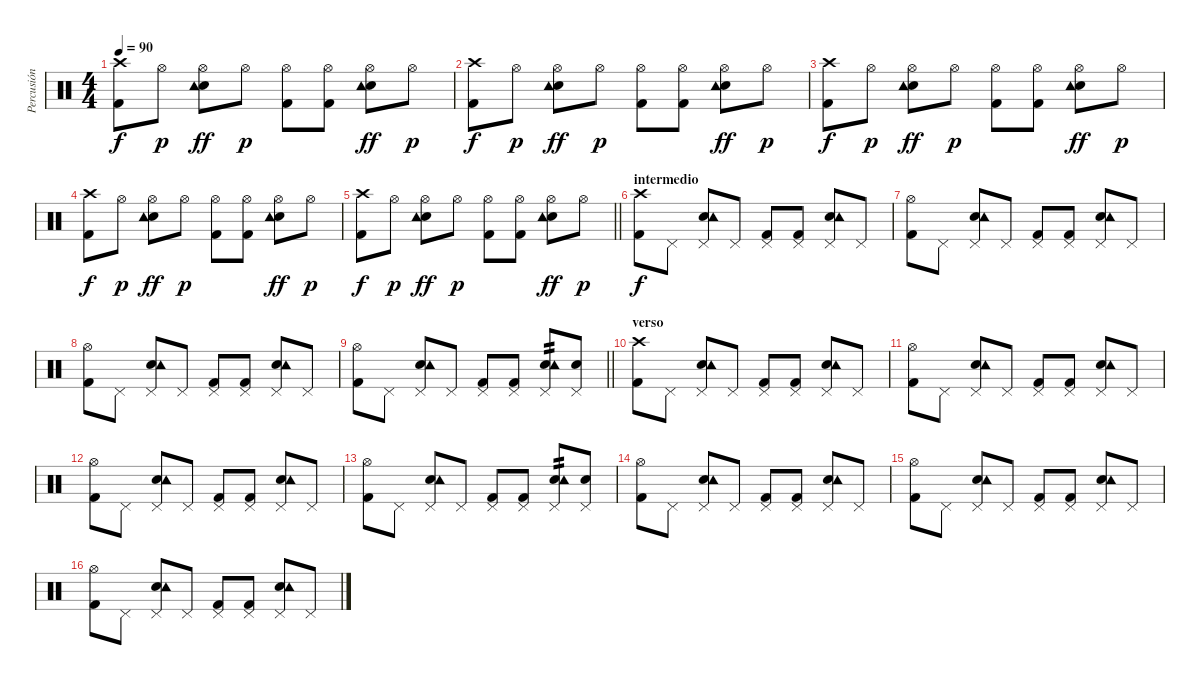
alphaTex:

\track ("Percusión" "Percusión") {instrument percussion}
\staff {score}
\articulation defaults
\ts (4 4)
\tempo 90
\clef neutral
\ks c
("Crash high (hit)" "Kick (hit) 2").8{dy f} "Hi-Hat (open)".8{dy p} ("Hi-Hat (open)" "Snare (hit) 2" "Tambourine (hit)").8{dy ff} "Hi-Hat (open)".8{dy p} ("Hi-Hat (open)" "Kick (hit) 2").8 ("Hi-Hat (open)" "Kick (hit) 2").8 ("Hi-Hat (open)" "Snare (hit) 2" "Tambourine (hit)").8{dy ff} "Hi-Hat (open)".8{dy p} |
("Crash high (hit)" "Kick (hit) 2").8{dy f} "Hi-Hat (open)".8{dy p} ("Hi-Hat (open)" "Snare (hit) 2" "Tambourine (hit)").8{dy ff} "Hi-Hat (open)".8{dy p} ("Hi-Hat (open)" "Kick (hit) 2").8 ("Hi-Hat (open)" "Kick (hit) 2").8 ("Hi-Hat (open)" "Snare (hit) 2" "Tambourine (hit)").8{dy ff} "Hi-Hat (open)".8{dy p} |
("Crash high (hit)" "Kick (hit) 2").8{dy f} "Hi-Hat (open)".8{dy p} ("Hi-Hat (open)" "Snare (hit) 2" "Tambourine (hit)").8{dy ff} "Hi-Hat (open)".8{dy p} ("Hi-Hat (open)" "Kick (hit) 2").8 ("Hi-Hat (open)" "Kick (hit) 2").8 ("Hi-Hat (open)" "Snare (hit) 2" "Tambourine (hit)").8{dy ff} "Hi-Hat (open)".8{dy p} |
("Crash high (hit)" "Kick (hit) 2").8{dy f} "Hi-Hat (open)".8{dy p} ("Hi-Hat (open)" "Snare (hit) 2" "Tambourine (hit)").8{dy ff} "Hi-Hat (open)".8{dy p} ("Hi-Hat (open)" "Kick (hit) 2").8 ("Hi-Hat (open)" "Kick (hit) 2").8 ("Hi-Hat (open)" "Snare (hit) 2" "Tambourine (hit)").8{dy ff} "Hi-Hat (open)".8{dy p} |
\barLineRight lightlight
("Crash high (hit)" "Kick (hit) 2").8{dy f} "Hi-Hat (open)".8{dy p} ("Hi-Hat (open)" "Snare (hit) 2" "Tambourine (hit)").8{dy ff} "Hi-Hat (open)".8{dy p} ("Hi-Hat (open)" "Kick (hit) 2").8 ("Hi-Hat (open)" "Kick (hit) 2").8 ("Hi-Hat (open)" "Snare (hit) 2" "Tambourine (hit)").8{dy ff} "Hi-Hat (open)".8{dy p} |
\section ("" "intermedio")
("Crash high (hit)" "Kick (hit) 2").8{dy f} "Pedal Hi-Hat (hit)".8 ("Pedal Hi-Hat (hit)" "Snare (hit) 2" "Tambourine (hit)").8 "Pedal Hi-Hat (hit)".8 ("Pedal Hi-Hat (hit)" "Kick (hit) 2").8 ("Pedal Hi-Hat (hit)" "Kick (hit) 2").8 ("Pedal Hi-Hat (hit)" "Snare (hit) 2" "Tambourine (hit)").8 "Pedal Hi-Hat (hit)".8 |
("Hi-Hat (open)" "Kick (hit) 2").8 "Pedal Hi-Hat (hit)".8 ("Pedal Hi-Hat (hit)" "Snare (hit) 2" "Tambourine (hit)").8 "Pedal Hi-Hat (hit)".8 ("Pedal Hi-Hat (hit)" "Kick (hit) 2").8 ("Pedal Hi-Hat (hit)" "Kick (hit) 2").8 ("Pedal Hi-Hat (hit)" "Snare (hit) 2" "Tambourine (hit)").8 "Pedal Hi-Hat (hit)".8 |
("Hi-Hat (open)" "Kick (hit) 2").8 "Pedal Hi-Hat (hit)".8 ("Pedal Hi-Hat (hit)" "Snare (hit) 2" "Tambourine (hit)").8 "Pedal Hi-Hat (hit)".8 ("Pedal Hi-Hat (hit)" "Kick (hit) 2").8 ("Pedal Hi-Hat (hit)" "Kick (hit) 2").8 ("Pedal Hi-Hat (hit)" "Snare (hit) 2" "Tambourine (hit)").8 "Pedal Hi-Hat (hit)".8 |
\barLineRight lightlight
("Hi-Hat (open)" "Kick (hit) 2").8 "Pedal Hi-Hat (hit)".8 ("Pedal Hi-Hat (hit)" "Snare (hit) 2" "Tambourine (hit)").8 "Pedal Hi-Hat (hit)".8 ("Pedal Hi-Hat (hit)" "Kick (hit) 2").8 ("Pedal Hi-Hat (hit)" "Kick (hit) 2").8 ("Pedal Hi-Hat (hit)" "Snare (hit) 2" "Tambourine (hit)").8{tp 2} ("Pedal Hi-Hat (hit)" "Snare (hit) 2").8 |
\section ("" "verso")
("Crash high (hit)" "Kick (hit) 2").8 "Pedal Hi-Hat (hit)".8 ("Pedal Hi-Hat (hit)" "Snare (hit) 2" "Tambourine (hit)").8 "Pedal Hi-Hat (hit)".8 ("Pedal Hi-Hat (hit)" "Kick (hit) 2").8 ("Pedal Hi-Hat (hit)" "Kick (hit) 2").8 ("Pedal Hi-Hat (hit)" "Snare (hit) 2" "Tambourine (hit)").8 "Pedal Hi-Hat (hit)".8 |
("Hi-Hat (open)" "Kick (hit) 2").8 "Pedal Hi-Hat (hit)".8 ("Pedal Hi-Hat (hit)" "Snare (hit) 2" "Tambourine (hit)").8 "Pedal Hi-Hat (hit)".8 ("Pedal Hi-Hat (hit)" "Kick (hit) 2").8 ("Pedal Hi-Hat (hit)" "Kick (hit) 2").8 ("Pedal Hi-Hat (hit)" "Snare (hit) 2" "Tambourine (hit)").8 "Pedal Hi-Hat (hit)".8 |
("Hi-Hat (open)" "Kick (hit) 2").8 "Pedal Hi-Hat (hit)".8 ("Pedal Hi-Hat (hit)" "Snare (hit) 2" "Tambourine (hit)").8 "Pedal Hi-Hat (hit)".8 ("Pedal Hi-Hat (hit)" "Kick (hit) 2").8 ("Pedal Hi-Hat (hit)" "Kick (hit) 2").8 ("Pedal Hi-Hat (hit)" "Snare (hit) 2" "Tambourine (hit)").8 "Pedal Hi-Hat (hit)".8 |
("Hi-Hat (open)" "Kick (hit) 2").8 "Pedal Hi-Hat (hit)".8 ("Pedal Hi-Hat (hit)" "Snare (hit) 2" "Tambourine (hit)").8 "Pedal Hi-Hat (hit)".8 ("Pedal Hi-Hat (hit)" "Kick (hit) 2").8 ("Pedal Hi-Hat (hit)" "Kick (hit) 2").8 ("Pedal Hi-Hat (hit)" "Snare (hit) 2" "Tambourine (hit)").8{tp 2} ("Pedal Hi-Hat (hit)" "Snare (hit) 2").8 |
("Hi-Hat (open)" "Kick (hit) 2").8 "Pedal Hi-Hat (hit)".8 ("Pedal Hi-Hat (hit)" "Snare (hit) 2" "Tambourine (hit)").8 "Pedal Hi-Hat (hit)".8 ("Pedal Hi-Hat (hit)" "Kick (hit) 2").8 ("Pedal Hi-Hat (hit)" "Kick (hit) 2").8 ("Pedal Hi-Hat (hit)" "Snare (hit) 2" "Tambourine (hit)").8 "Pedal Hi-Hat (hit)".8 |
("Hi-Hat (open)" "Kick (hit) 2").8 "Pedal Hi-Hat (hit)".8 ("Pedal Hi-Hat (hit)" "Snare (hit) 2" "Tambourine (hit)").8 "Pedal Hi-Hat (hit)".8 ("Pedal Hi-Hat (hit)" "Kick (hit) 2").8 ("Pedal Hi-Hat (hit)" "Kick (hit) 2").8 ("Pedal Hi-Hat (hit)" "Snare (hit) 2" "Tambourine (hit)").8 "Pedal Hi-Hat (hit)".8 |
("Hi-Hat (open)" "Kick (hit) 2").8 "Pedal Hi-Hat (hit)".8 ("Pedal Hi-Hat (hit)" "Snare (hit) 2" "Tambourine (hit)").8 "Pedal Hi-Hat (hit)".8 ("Pedal Hi-Hat (hit)" "Kick (hit) 2").8 ("Pedal Hi-Hat (hit)" "Kick (hit) 2").8 ("Pedal Hi-Hat (hit)" "Snare (hit) 2" "Tambourine (hit)").8 "Pedal Hi-Hat (hit)".8
